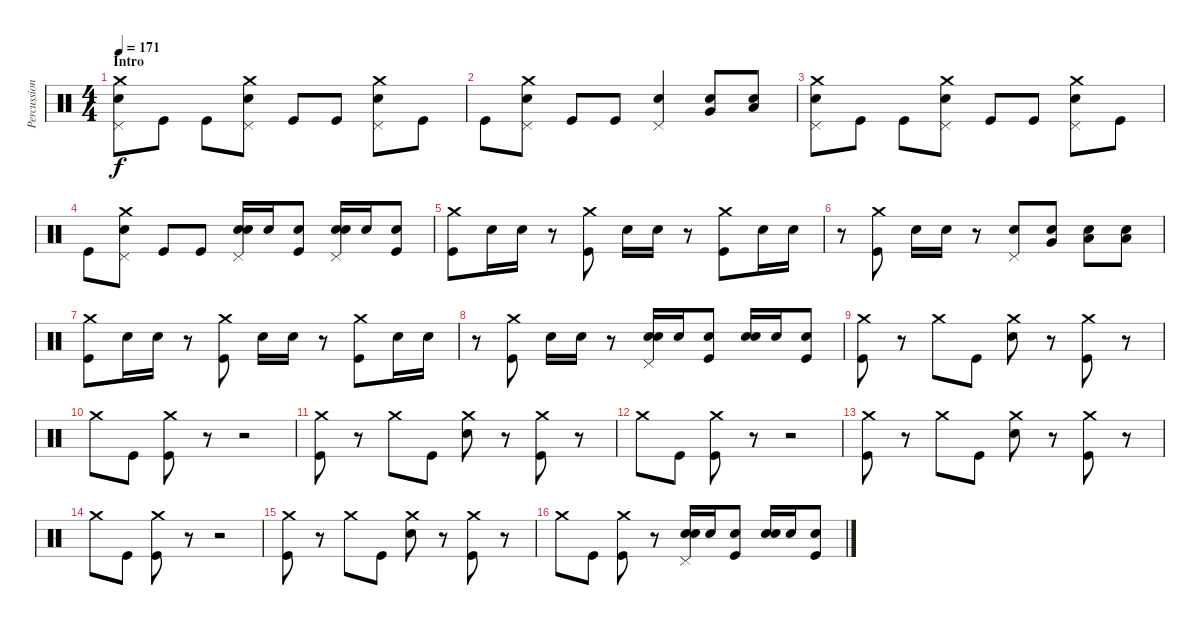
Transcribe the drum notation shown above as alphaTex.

\track ("Percussion" "Percussion") {instrument percussion}
\staff {score}
\articulation defaults
\ts (4 4)
\section ("" "Intro")
\tempo 171
\clef neutral
\ks c
("Crash medium (hit)" "Electric Snare (hit)" "Pedal Hi-Hat (hit)").8{dy f} "Kick (hit)".8 "Kick (hit)".8 ("Crash medium (hit)" "Electric Snare (hit)" "Pedal Hi-Hat (hit)").8 "Kick (hit)".8 "Kick (hit)".8 ("Crash medium (hit)" "Electric Snare (hit)" "Pedal Hi-Hat (hit)").8 "Kick (hit)".8 |
"Kick (hit)".8 ("Crash medium (hit)" "Electric Snare (hit)" "Pedal Hi-Hat (hit)").8 "Kick (hit)".8 "Kick (hit)".8 ("Electric Snare (hit)" "Pedal Hi-Hat (hit)").4 ("Very Low Tom (hit)" "Electric Snare (hit)").8 ("Low Floor Tom (hit)" "Electric Snare (hit)").8 |
("Crash medium (hit)" "Electric Snare (hit)" "Pedal Hi-Hat (hit)").8 "Kick (hit)".8 "Kick (hit)".8 ("Crash medium (hit)" "Electric Snare (hit)" "Pedal Hi-Hat (hit)").8 "Kick (hit)".8 "Kick (hit)".8 ("Crash medium (hit)" "Electric Snare (hit)" "Pedal Hi-Hat (hit)").8 "Kick (hit)".8 |
"Kick (hit)".8 ("Crash medium (hit)" "Electric Snare (hit)" "Pedal Hi-Hat (hit)").8 "Kick (hit)".8 "Kick (hit)".8 ("Electric Snare (hit)" "Electric Snare (hit)" "Pedal Hi-Hat (hit)").16 "Electric Snare (hit)".16 ("Electric Snare (hit)" "Kick (hit)").8 ("Electric Snare (hit)" "Electric Snare (hit)" "Pedal Hi-Hat (hit)").16 "Electric Snare (hit)".16 ("Electric Snare (hit)" "Kick (hit)").8 |
("Crash medium (hit)" "Kick (hit)").8 "Electric Snare (hit)".16 "Electric Snare (hit)".16 r.8 ("Crash medium (hit)" "Kick (hit)").8 "Electric Snare (hit)".16 "Electric Snare (hit)".16 r.8 ("Crash medium (hit)" "Kick (hit)").8 "Electric Snare (hit)".16 "Electric Snare (hit)".16 |
r.8 ("Crash medium (hit)" "Kick (hit)").8 "Electric Snare (hit)".16 "Electric Snare (hit)".16 r.8 ("Electric Snare (hit)" "Pedal Hi-Hat (hit)").8 ("Very Low Tom (hit)" "Electric Snare (hit)").8 ("Low Floor Tom (hit)" "Electric Snare (hit)").8 ("Low Floor Tom (hit)" "Electric Snare (hit)").8 |
("Crash medium (hit)" "Kick (hit)").8 "Electric Snare (hit)".16 "Electric Snare (hit)".16 r.8 ("Crash medium (hit)" "Kick (hit)").8 "Electric Snare (hit)".16 "Electric Snare (hit)".16 r.8 ("Crash medium (hit)" "Kick (hit)").8 "Electric Snare (hit)".16 "Electric Snare (hit)".16 |
r.8 ("Crash medium (hit)" "Kick (hit)").8 "Electric Snare (hit)".16 "Electric Snare (hit)".16 r.8 ("Electric Snare (hit)" "Electric Snare (hit)" "Pedal Hi-Hat (hit)").16 "Electric Snare (hit)".16 ("Electric Snare (hit)" "Kick (hit)").8 ("Electric Snare (hit)" "Electric Snare (hit)").16 "Electric Snare (hit)".16 ("Electric Snare (hit)" "Kick (hit)").8 |
("Crash medium (hit)" "Kick (hit)").8 r.8 "Crash medium (hit)".8 "Kick (hit)".8 ("Crash medium (hit)" "Electric Snare (hit)").8 r.8 ("Crash medium (hit)" "Kick (hit)").8 r.8 |
"Crash medium (hit)".8 "Kick (hit)".8 ("Crash medium (hit)" "Kick (hit)").8 r.8 r.2 |
("Crash medium (hit)" "Kick (hit)").8 r.8 "Crash medium (hit)".8 "Kick (hit)".8 ("Crash medium (hit)" "Electric Snare (hit)").8 r.8 ("Crash medium (hit)" "Kick (hit)").8 r.8 |
"Crash medium (hit)".8 "Kick (hit)".8 ("Crash medium (hit)" "Kick (hit)").8 r.8 r.2 |
("Crash medium (hit)" "Kick (hit)").8 r.8 "Crash medium (hit)".8 "Kick (hit)".8 ("Crash medium (hit)" "Electric Snare (hit)").8 r.8 ("Crash medium (hit)" "Kick (hit)").8 r.8 |
"Crash medium (hit)".8 "Kick (hit)".8 ("Crash medium (hit)" "Kick (hit)").8 r.8 r.2 |
("Crash medium (hit)" "Kick (hit)").8 r.8 "Crash medium (hit)".8 "Kick (hit)".8 ("Crash medium (hit)" "Electric Snare (hit)").8 r.8 ("Crash medium (hit)" "Kick (hit)").8 r.8 |
"Crash medium (hit)".8 "Kick (hit)".8 ("Crash medium (hit)" "Kick (hit)").8 r.8 ("Electric Snare (hit)" "Electric Snare (hit)" "Pedal Hi-Hat (hit)").16 "Electric Snare (hit)".16 ("Electric Snare (hit)" "Kick (hit)").8 ("Electric Snare (hit)" "Electric Snare (hit)").16 "Electric Snare (hit)".16 ("Electric Snare (hit)" "Kick (hit)").8
